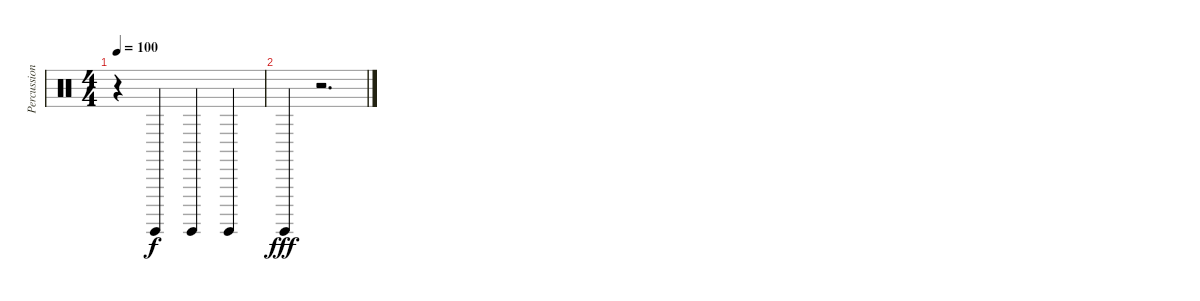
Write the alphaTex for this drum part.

\track ("Percussion" "Percussion") {instrument percussion}
\staff {score}
\articulation defaults
\ts (4 4)
\tempo 100
\clef neutral
\ks c
r.4{dy ppp volume 10} "Surdo (hit)".4{dy f} "Surdo (hit)".4 "Surdo (hit)".4 |
"Surdo (hit)".4{dy fff} r.2{d}
